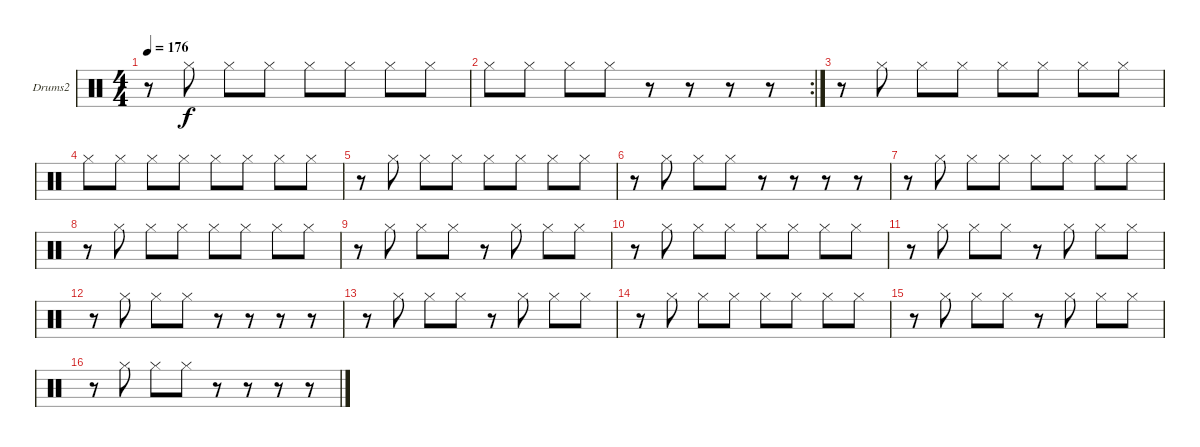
\defaultSystemsLayout 4
\bracketExtendMode groupsimilarinstruments
\firstSystemTrackNameOrientation horizontal
\otherSystemsTrackNameOrientation horizontal
\track ("Drums2" "Drums2") {instrument percussion}
\staff {score}
\articulation defaults
\ts (4 4)
\tempo 176
\clef neutral
\scale
0.333333
\ks c
r.8{dy f} "Hi-Hat (closed)".8 "Hi-Hat (closed)".8 "Hi-Hat (closed)".8 "Hi-Hat (closed)".8 "Hi-Hat (closed)".8 "Hi-Hat (closed)".8 "Hi-Hat (closed)".8 |
\rc 2
\scale
0.356322 "Hi-Hat (closed)".8 "Hi-Hat (closed)".8 "Hi-Hat (closed)".8 "Hi-Hat (closed)".8 r.8 r.8 r.8 r.8 |
\scale
0.321839 r.8 "Hi-Hat (closed)".8 "Hi-Hat (closed)".8 "Hi-Hat (closed)".8 "Hi-Hat (closed)".8 "Hi-Hat (closed)".8 "Hi-Hat (closed)".8 "Hi-Hat (closed)".8 |
\scale
0.321839 "Hi-Hat (closed)".8 "Hi-Hat (closed)".8 "Hi-Hat (closed)".8 "Hi-Hat (closed)".8 "Hi-Hat (closed)".8 "Hi-Hat (closed)".8 "Hi-Hat (closed)".8 "Hi-Hat (closed)".8 |
\scale
0.333333 r.8 "Hi-Hat (closed)".8 "Hi-Hat (closed)".8 "Hi-Hat (closed)".8 "Hi-Hat (closed)".8 "Hi-Hat (closed)".8 "Hi-Hat (closed)".8 "Hi-Hat (closed)".8 |
\scale
0.333333 r.8 "Hi-Hat (closed)".8 "Hi-Hat (closed)".8 "Hi-Hat (closed)".8 r.8 r.8 r.8 r.8 |
\scale
0.333333 r.8 "Hi-Hat (closed)".8 "Hi-Hat (closed)".8 "Hi-Hat (closed)".8 "Hi-Hat (closed)".8 "Hi-Hat (closed)".8 "Hi-Hat (closed)".8 "Hi-Hat (closed)".8 |
\scale
0.333333 r.8 "Hi-Hat (closed)".8 "Hi-Hat (closed)".8 "Hi-Hat (closed)".8 "Hi-Hat (closed)".8 "Hi-Hat (closed)".8 "Hi-Hat (closed)".8 "Hi-Hat (closed)".8 |
\scale
0.333333 r.8 "Hi-Hat (closed)".8 "Hi-Hat (closed)".8 "Hi-Hat (closed)".8 r.8 "Hi-Hat (closed)".8 "Hi-Hat (closed)".8 "Hi-Hat (closed)".8 |
\scale
0.333333 r.8 "Hi-Hat (closed)".8 "Hi-Hat (closed)".8 "Hi-Hat (closed)".8 "Hi-Hat (closed)".8 "Hi-Hat (closed)".8 "Hi-Hat (closed)".8 "Hi-Hat (closed)".8 |
\scale
0.333333 r.8 "Hi-Hat (closed)".8 "Hi-Hat (closed)".8 "Hi-Hat (closed)".8 r.8 "Hi-Hat (closed)".8 "Hi-Hat (closed)".8 "Hi-Hat (closed)".8 |
\scale
0.333333 r.8 "Hi-Hat (closed)".8 "Hi-Hat (closed)".8 "Hi-Hat (closed)".8 r.8 r.8 r.8 r.8 |
\scale
0.333333 r.8 "Hi-Hat (closed)".8 "Hi-Hat (closed)".8 "Hi-Hat (closed)".8 r.8 "Hi-Hat (closed)".8 "Hi-Hat (closed)".8 "Hi-Hat (closed)".8 |
\scale
0.333333 r.8 "Hi-Hat (closed)".8 "Hi-Hat (closed)".8 "Hi-Hat (closed)".8 "Hi-Hat (closed)".8 "Hi-Hat (closed)".8 "Hi-Hat (closed)".8 "Hi-Hat (closed)".8 |
\scale
0.333333 r.8 "Hi-Hat (closed)".8 "Hi-Hat (closed)".8 "Hi-Hat (closed)".8 r.8 "Hi-Hat (closed)".8 "Hi-Hat (closed)".8 "Hi-Hat (closed)".8 |
\scale
0.333333 r.8 "Hi-Hat (closed)".8 "Hi-Hat (closed)".8 "Hi-Hat (closed)".8 r.8 r.8 r.8 r.8
